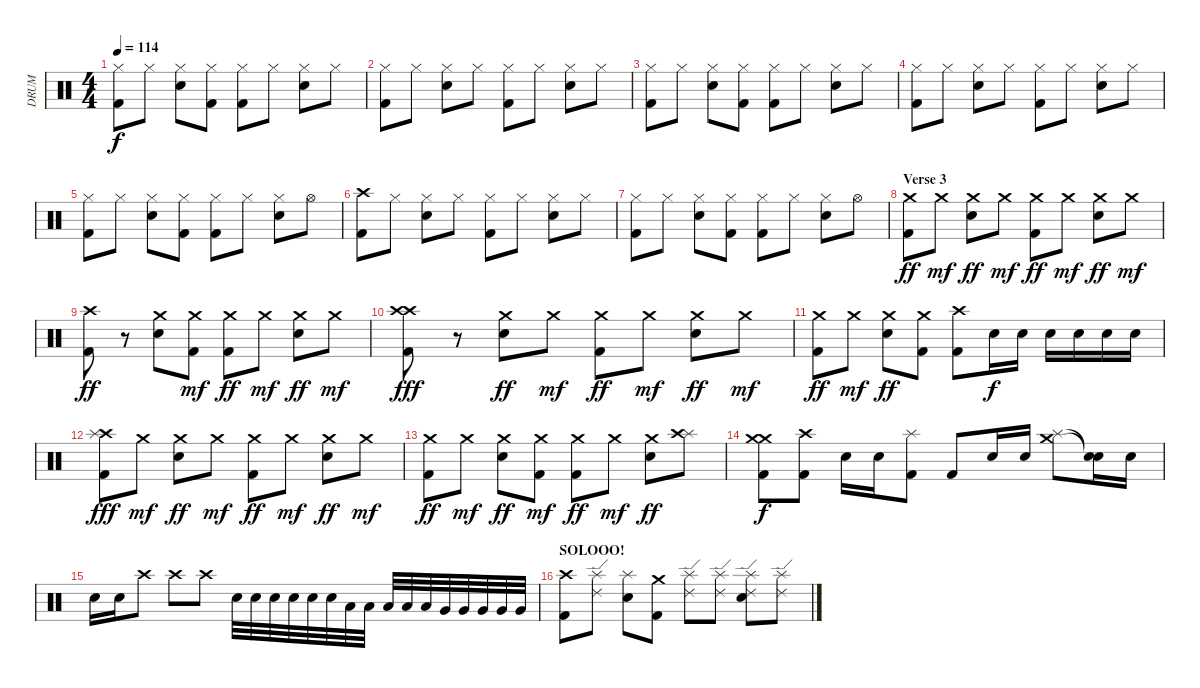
\track ("DRUM" "DRUM") {instrument percussion}
\staff {score}
\articulation defaults
\ts (4 4)
\tempo 114
\clef neutral
\ks c
("Hi-Hat (closed)" "Kick (hit) 2").8{dy f} "Hi-Hat (closed)".8 ("Hi-Hat (closed)" "Electric Snare (hit)").8 ("Hi-Hat (closed)" "Kick (hit) 2").8 ("Hi-Hat (closed)" "Kick (hit) 2").8 "Hi-Hat (closed)".8 ("Hi-Hat (closed)" "Electric Snare (hit)").8 "Hi-Hat (closed)".8 |
\section ("" "")
("Hi-Hat (closed)" "Kick (hit) 2").8 "Hi-Hat (closed)".8 ("Hi-Hat (closed)" "Electric Snare (hit)").8 "Hi-Hat (closed)".8 ("Hi-Hat (closed)" "Kick (hit) 2").8 "Hi-Hat (closed)".8 ("Hi-Hat (closed)" "Electric Snare (hit)").8 "Hi-Hat (closed)".8 |
("Hi-Hat (closed)" "Kick (hit) 2").8 "Hi-Hat (closed)".8 ("Hi-Hat (closed)" "Electric Snare (hit)").8 ("Hi-Hat (closed)" "Kick (hit) 2").8 ("Hi-Hat (closed)" "Kick (hit) 2").8 "Hi-Hat (closed)".8 ("Hi-Hat (closed)" "Electric Snare (hit)").8 "Hi-Hat (closed)".8 |
("Hi-Hat (closed)" "Kick (hit) 2").8 "Hi-Hat (closed)".8 ("Hi-Hat (closed)" "Electric Snare (hit)").8 "Hi-Hat (closed)".8 ("Hi-Hat (closed)" "Kick (hit) 2").8 "Hi-Hat (closed)".8 ("Hi-Hat (closed)" "Electric Snare (hit)").8 "Hi-Hat (closed)".8 |
("Hi-Hat (closed)" "Kick (hit) 2").8 "Hi-Hat (closed)".8 ("Hi-Hat (closed)" "Electric Snare (hit)").8 ("Hi-Hat (closed)" "Kick (hit) 2").8 ("Hi-Hat (closed)" "Kick (hit) 2").8 "Hi-Hat (closed)".8 ("Hi-Hat (closed)" "Electric Snare (hit)").8 "Hi-Hat (open)".8 |
("Crash high (hit)" "Kick (hit) 2").8 "Hi-Hat (closed)".8 ("Hi-Hat (closed)" "Electric Snare (hit)").8 "Hi-Hat (closed)".8 ("Hi-Hat (closed)" "Kick (hit) 2").8 "Hi-Hat (closed)".8 ("Hi-Hat (closed)" "Electric Snare (hit)").8 "Hi-Hat (closed)".8 |
("Hi-Hat (closed)" "Kick (hit) 2").8 "Hi-Hat (closed)".8 ("Hi-Hat (closed)" "Electric Snare (hit)").8 ("Hi-Hat (closed)" "Kick (hit) 2").8 ("Hi-Hat (closed)" "Kick (hit) 2").8 "Hi-Hat (closed)".8 ("Hi-Hat (closed)" "Electric Snare (hit)").8 "Hi-Hat (open)".8 |
\section ("" "Verse 3")
("Crash medium (hit)" "Kick (hit) 2").8{dy ff} "Crash medium (hit)".8{dy mf} ("Crash medium (hit)" "Electric Snare (hit)").8{dy ff} "Crash medium (hit)".8{dy mf} ("Crash medium (hit)" "Kick (hit) 2").8{dy ff} "Crash medium (hit)".8{dy mf} ("Crash medium (hit)" "Electric Snare (hit)").8{dy ff} "Crash medium (hit)".8{dy mf} |
("Crash high (hit)" "Kick (hit) 2").8{dy ff} r.8 ("Crash medium (hit)" "Electric Snare (hit)").8 ("Crash medium (hit)" "Kick (hit) 2").8{dy mf} ("Crash medium (hit)" "Kick (hit) 2").8{dy ff} "Crash medium (hit)".8{dy mf} ("Crash medium (hit)" "Electric Snare (hit)").8{dy ff} "Crash medium (hit)".8{dy mf} |
("Crash high (hit)" "Crash high (hit)" "Kick (hit) 2").8{dy fff} r.8 ("Crash medium (hit)" "Electric Snare (hit)").8{dy ff} "Crash medium (hit)".8{dy mf} ("Crash medium (hit)" "Kick (hit) 2").8{dy ff} "Crash medium (hit)".8{dy mf} ("Crash medium (hit)" "Electric Snare (hit)").8{dy ff} "Crash medium (hit)".8{dy mf} |
("Crash medium (hit)" "Kick (hit) 2").8{dy ff} "Crash medium (hit)".8{dy mf} ("Crash medium (hit)" "Electric Snare (hit)").8{dy ff} ("Crash medium (hit)" "Kick (hit) 2").8 ("Crash high (hit)" "Kick (hit) 2").8 "Electric Snare (hit)".16{dy f} "Electric Snare (hit)".16 "Electric Snare (hit)".16 "Electric Snare (hit)".16 "Electric Snare (hit)".16 "Electric Snare (hit)".16 |
("Crash high (hit)" "Splash (hit)" "Kick (hit) 2").8{dy fff} "Crash medium (hit)".8{dy mf} ("Crash medium (hit)" "Electric Snare (hit)").8{dy ff} "Crash medium (hit)".8{dy mf} ("Crash medium (hit)" "Kick (hit) 2").8{dy ff} "Crash medium (hit)".8{dy mf} ("Crash medium (hit)" "Electric Snare (hit)").8{dy ff} "Crash medium (hit)".8{dy mf} |
("Crash medium (hit)" "Kick (hit) 2").8{dy ff} "Crash medium (hit)".8{dy mf} ("Crash medium (hit)" "Electric Snare (hit)").8{dy ff} ("Crash medium (hit)" "Kick (hit) 2").8{dy mf} ("Crash medium (hit)" "Kick (hit) 2").8{dy ff} "Crash medium (hit)".8{dy mf} ("Crash medium (hit)" "Electric Snare (hit)").8{dy ff} ("Splash (hit)" "Crash high (hit)").8 |
("Crash medium (hit)" "Crash medium (hit)" "Kick (hit) 2").8{dy f} ("Crash high (hit)" "Kick (hit) 2").8 "Electric Snare (hit)".16 "Electric Snare (hit)".16 ("Splash (hit)" "Kick (hit) 2").8 "Kick (hit) 2".8 "Electric Snare (hit)".16 "Electric Snare (hit)".16 ("Crash medium (hit)" "Splash (hit)").8 ("Snare (hit)"{t} "Snare (hit)"{t}).16 "Electric Snare (hit)".16 |
"Electric Snare (hit)".16 "Electric Snare (hit)".16 "Crash high (hit)".8 "Crash high (hit)".8 "Crash high (hit)".8 "Electric Snare (hit)".32 "Electric Snare (hit)".32 "Electric Snare (hit)".32 "Electric Snare (hit)".32 "Electric Snare (hit)".32 "Electric Snare (hit)".32 "Low Tom (hit)".32 "Low Tom (hit)".32 "Low Tom (hit)".32 "Low Tom (hit)".32 "Low Tom (hit)".32 "Very Low Tom (hit)".32 "Very Low Tom (hit)".32 "Very Low Tom (hit)".32 "Very Low Tom (hit)".32 "Very Low Tom (hit)".32 |
\section ("" "SOLOOO!")
("Crash high (hit)" "Kick (hit) 2").8 ("Splash (hit)" "Ride (edge) 2").8 ("Splash (hit)" "Electric Snare (hit)").8 ("Crash medium (hit)" "Kick (hit) 2").8 ("Splash (hit)" "Ride (edge) 2").8 ("Ride (edge) 2" "Splash (hit)").8 ("Ride (edge) 2" "Splash (hit)" "Electric Snare (hit)").8 ("Ride (edge) 2" "Splash (hit)").8
